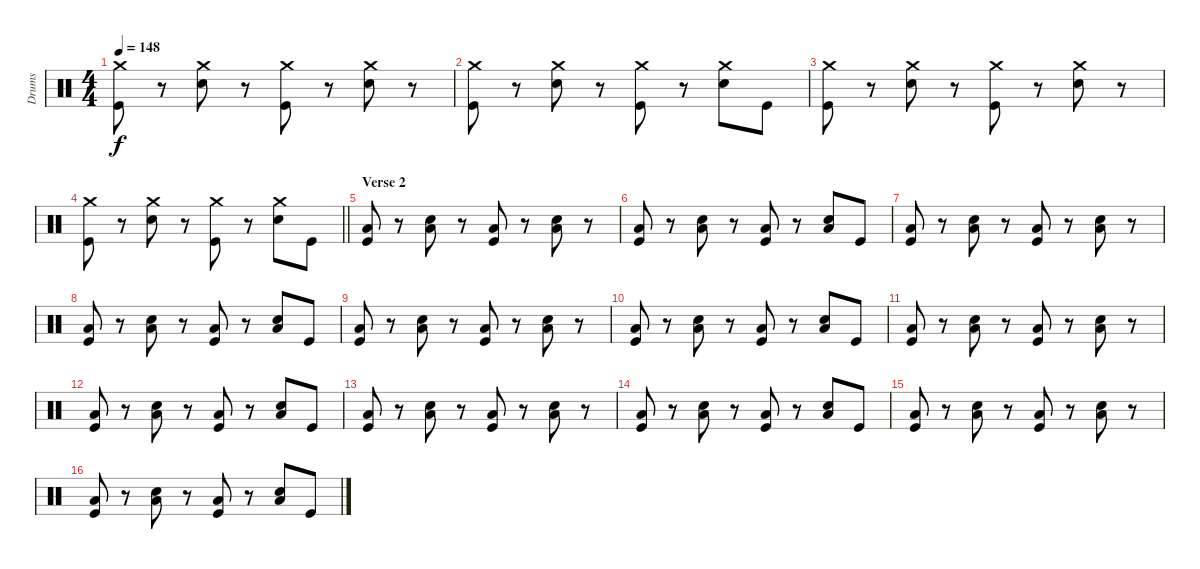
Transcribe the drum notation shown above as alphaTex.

\track ("Drums" "Drums") {instrument percussion}
\staff {score}
\articulation defaults
\ts (4 4)
\tempo 148
\clef neutral
\ks c
("Crash medium (hit)" "Kick (hit)").8{dy f} r.8 ("Crash medium (hit)" "Electric Snare (hit)").8 r.8 ("Crash medium (hit)" "Kick (hit)").8 r.8 ("Crash medium (hit)" "Electric Snare (hit)").8 r.8 |
("Crash medium (hit)" "Kick (hit)").8 r.8 ("Crash medium (hit)" "Electric Snare (hit)").8 r.8 ("Crash medium (hit)" "Kick (hit)").8 r.8 ("Crash medium (hit)" "Electric Snare (hit)").8 "Kick (hit)".8 |
("Crash medium (hit)" "Kick (hit)").8 r.8 ("Crash medium (hit)" "Electric Snare (hit)").8 r.8 ("Crash medium (hit)" "Kick (hit)").8 r.8 ("Crash medium (hit)" "Electric Snare (hit)").8 r.8 |
\barLineRight lightlight
("Crash medium (hit)" "Kick (hit)").8 r.8 ("Crash medium (hit)" "Electric Snare (hit)").8 r.8 ("Crash medium (hit)" "Kick (hit)").8 r.8 ("Crash medium (hit)" "Electric Snare (hit)").8 "Kick (hit)".8 |
\section ("" "Verse 2")
("Low Tom (hit)" "Kick (hit)").8 r.8 ("Low Tom (hit)" "Electric Snare (hit)").8 r.8 ("Low Tom (hit)" "Kick (hit)").8 r.8 ("Low Tom (hit)" "Electric Snare (hit)").8 r.8 |
("Low Tom (hit)" "Kick (hit)").8 r.8 ("Low Tom (hit)" "Electric Snare (hit)").8 r.8 ("Low Tom (hit)" "Kick (hit)").8 r.8 ("Low Tom (hit)" "Electric Snare (hit)").8 "Kick (hit)".8 |
("Low Tom (hit)" "Kick (hit)").8 r.8 ("Low Tom (hit)" "Electric Snare (hit)").8 r.8 ("Low Tom (hit)" "Kick (hit)").8 r.8 ("Low Tom (hit)" "Electric Snare (hit)").8 r.8 |
("Low Tom (hit)" "Kick (hit)").8 r.8 ("Low Tom (hit)" "Electric Snare (hit)").8 r.8 ("Low Tom (hit)" "Kick (hit)").8 r.8 ("Low Tom (hit)" "Electric Snare (hit)").8 "Kick (hit)".8 |
("Low Tom (hit)" "Kick (hit)").8 r.8 ("Low Tom (hit)" "Electric Snare (hit)").8 r.8 ("Low Tom (hit)" "Kick (hit)").8 r.8 ("Low Tom (hit)" "Electric Snare (hit)").8 r.8 |
("Low Tom (hit)" "Kick (hit)").8 r.8 ("Low Tom (hit)" "Electric Snare (hit)").8 r.8 ("Low Tom (hit)" "Kick (hit)").8 r.8 ("Low Tom (hit)" "Electric Snare (hit)").8 "Kick (hit)".8 |
("Low Tom (hit)" "Kick (hit)").8 r.8 ("Low Tom (hit)" "Electric Snare (hit)").8 r.8 ("Low Tom (hit)" "Kick (hit)").8 r.8 ("Low Tom (hit)" "Electric Snare (hit)").8 r.8 |
("Low Tom (hit)" "Kick (hit)").8 r.8 ("Low Tom (hit)" "Electric Snare (hit)").8 r.8 ("Low Tom (hit)" "Kick (hit)").8 r.8 ("Low Tom (hit)" "Electric Snare (hit)").8 "Kick (hit)".8 |
("Low Tom (hit)" "Kick (hit)").8 r.8 ("Low Tom (hit)" "Electric Snare (hit)").8 r.8 ("Low Tom (hit)" "Kick (hit)").8 r.8 ("Low Tom (hit)" "Electric Snare (hit)").8 r.8 |
("Low Tom (hit)" "Kick (hit)").8 r.8 ("Low Tom (hit)" "Electric Snare (hit)").8 r.8 ("Low Tom (hit)" "Kick (hit)").8 r.8 ("Low Tom (hit)" "Electric Snare (hit)").8 "Kick (hit)".8 |
("Low Tom (hit)" "Kick (hit)").8 r.8 ("Low Tom (hit)" "Electric Snare (hit)").8 r.8 ("Low Tom (hit)" "Kick (hit)").8 r.8 ("Low Tom (hit)" "Electric Snare (hit)").8 r.8 |
("Low Tom (hit)" "Kick (hit)").8 r.8 ("Low Tom (hit)" "Electric Snare (hit)").8 r.8 ("Low Tom (hit)" "Kick (hit)").8 r.8 ("Low Tom (hit)" "Electric Snare (hit)").8 "Kick (hit)".8
